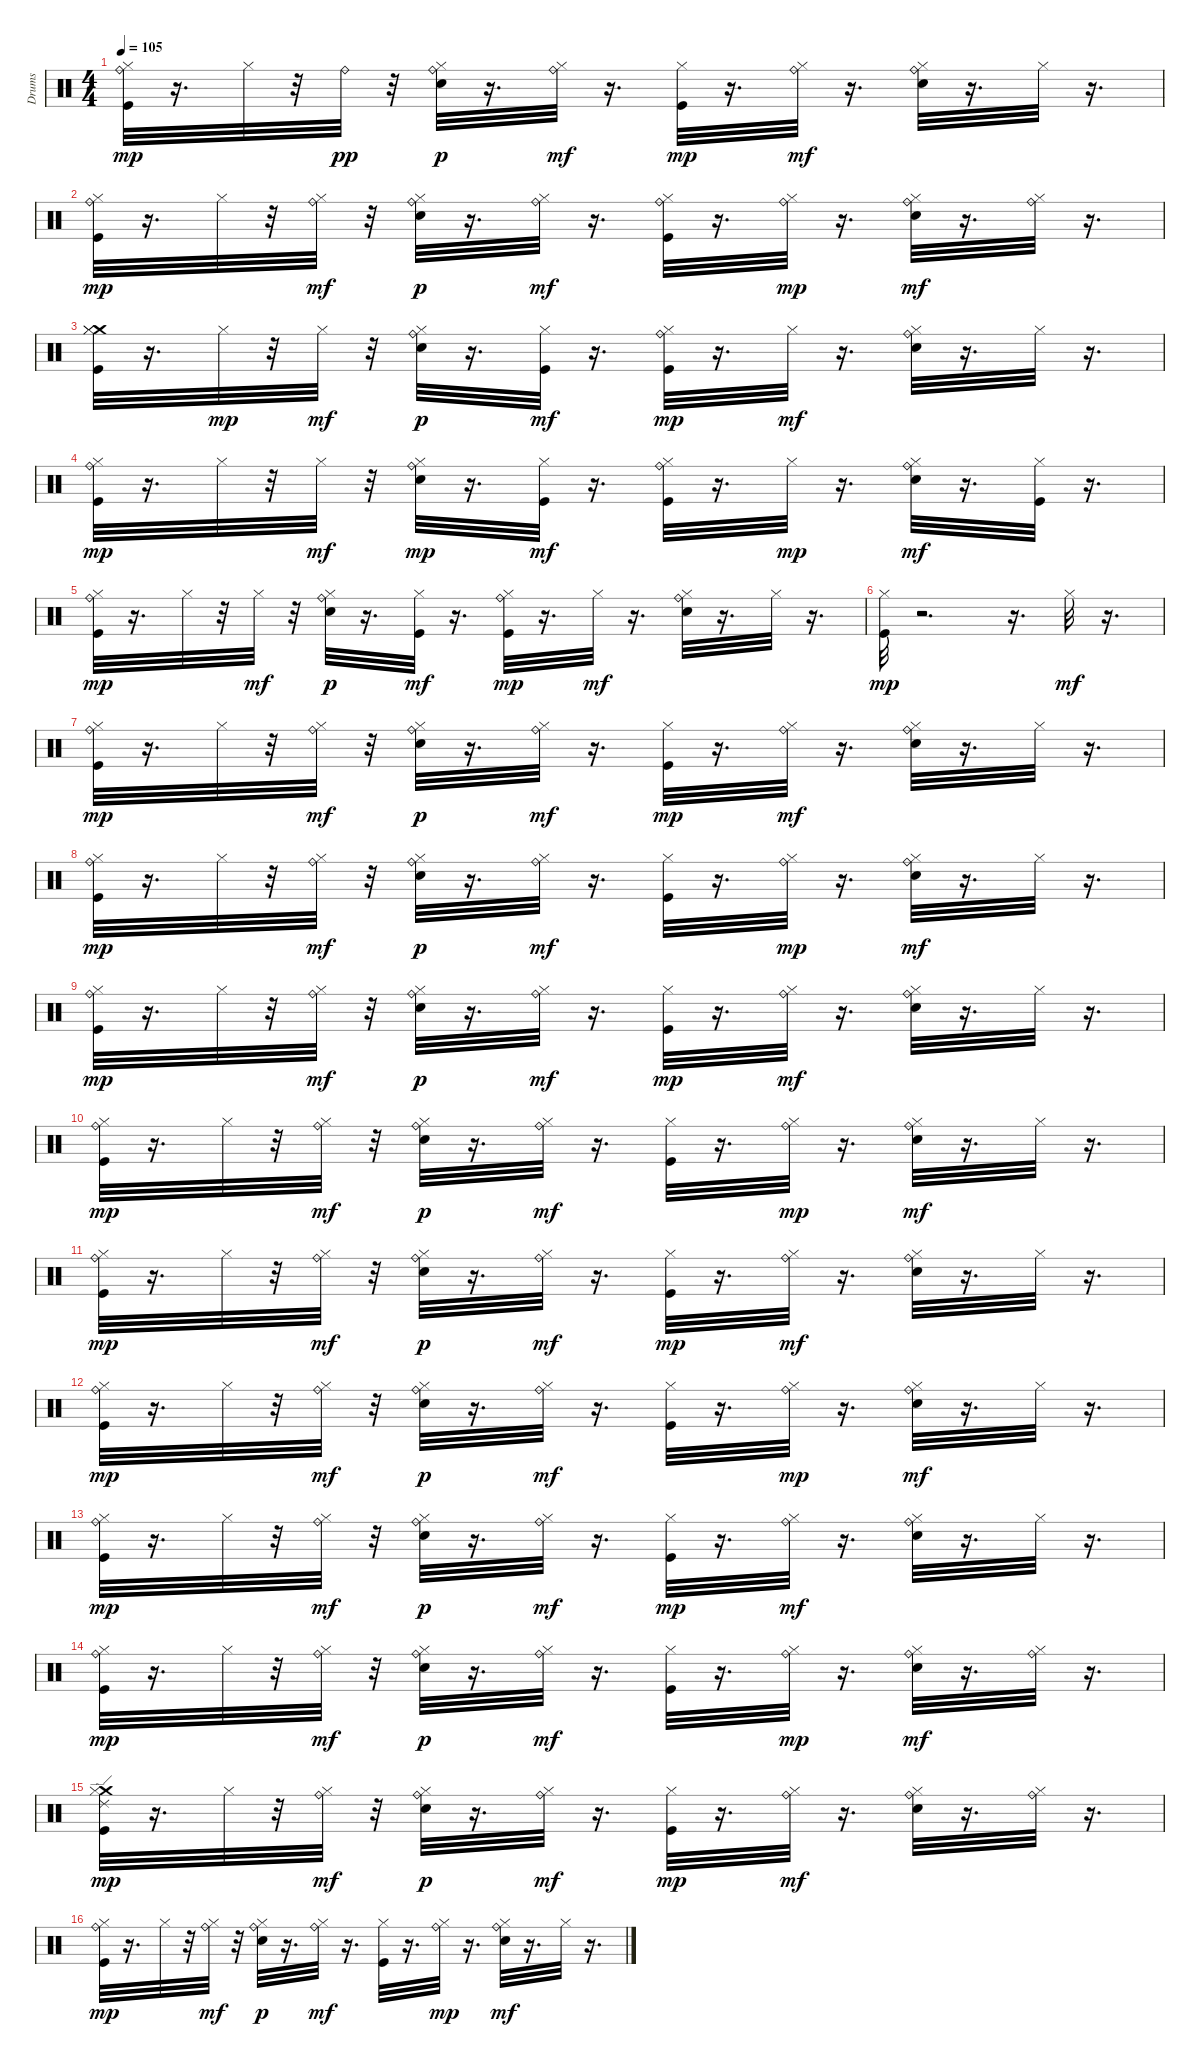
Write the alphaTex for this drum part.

\track ("Drums" "Drums") {instrument percussion}
\staff {score}
\articulation defaults
\ts (4 4)
\tempo 105
\clef neutral
\ks c
("Ride (bell)" "Kick (hit)" "Hi-Hat (closed)").32{dy mp} r.16{d} "Hi-Hat (closed)".32 r.32 "Ride (bell)".32{dy pp} r.32 ("Snare (hit) 2" "Ride (bell)" "Hi-Hat (closed)").32{dy p} r.16{d} ("Ride (bell)" "Hi-Hat (closed)").32{dy mf} r.16{d} ("Kick (hit)" "Hi-Hat (closed)").32{dy mp} r.16{d} ("Ride (bell)" "Hi-Hat (closed)").32{dy mf} r.16{d} ("Snare (hit) 2" "Ride (bell)" "Hi-Hat (closed)").32 r.16{d} "Hi-Hat (closed)".32 r.16{d} |
("Ride (bell)" "Kick (hit)" "Hi-Hat (closed)").32{dy mp} r.16{d} "Hi-Hat (closed)".32 r.32 ("Ride (bell)" "Hi-Hat (closed)").32{dy mf} r.32 ("Snare (hit) 2" "Ride (bell)" "Hi-Hat (closed)").32{dy p} r.16{d} ("Ride (bell)" "Hi-Hat (closed)").32{dy mf} r.16{d} ("Ride (bell)" "Kick (hit)" "Hi-Hat (closed)").32 r.16{d} ("Ride (bell)" "Hi-Hat (closed)").32{dy mp} r.16{d} ("Snare (hit) 2" "Ride (bell)" "Hi-Hat (closed)").32{dy mf} r.16{d} ("Ride (bell)" "Hi-Hat (closed)").32 r.16{d} |
("Crash medium (hit)" "Kick (hit)" "Hi-Hat (closed)" "Hi-Hat (closed)").32 r.16{d} "Hi-Hat (closed)".32{dy mp} r.32 "Hi-Hat (closed)".32{dy mf} r.32 ("Snare (hit) 2" "Ride (bell)" "Hi-Hat (closed)").32{dy p} r.16{d} ("Kick (hit)" "Hi-Hat (closed)").32{dy mf} r.16{d} ("Ride (bell)" "Kick (hit)" "Hi-Hat (closed)").32{dy mp} r.16{d} "Hi-Hat (closed)".32{dy mf} r.16{d} ("Snare (hit) 2" "Ride (bell)" "Hi-Hat (closed)").32 r.16{d} "Hi-Hat (closed)".32 r.16{d} |
("Ride (bell)" "Kick (hit)" "Hi-Hat (closed)").32{dy mp} r.16{d} "Hi-Hat (closed)".32 r.32 "Hi-Hat (closed)".32{dy mf} r.32 ("Snare (hit) 2" "Ride (bell)" "Hi-Hat (closed)").32{dy mp} r.16{d} ("Kick (hit)" "Hi-Hat (closed)").32{dy mf} r.16{d} ("Ride (bell)" "Kick (hit)" "Hi-Hat (closed)").32 r.16{d} "Hi-Hat (closed)".32{dy mp} r.16{d} ("Snare (hit) 2" "Ride (bell)" "Hi-Hat (closed)").32{dy mf} r.16{d} ("Kick (hit)" "Hi-Hat (closed)").32 r.16{d} |
("Ride (bell)" "Kick (hit)" "Hi-Hat (closed)").32{dy mp} r.16{d} "Hi-Hat (closed)".32 r.32 "Hi-Hat (closed)".32{dy mf} r.32 ("Snare (hit) 2" "Ride (bell)" "Hi-Hat (closed)").32{dy p} r.16{d} ("Kick (hit)" "Hi-Hat (closed)").32{dy mf} r.16{d} ("Ride (bell)" "Kick (hit)" "Hi-Hat (closed)").32{dy mp} r.16{d} "Hi-Hat (closed)".32{dy mf} r.16{d} ("Snare (hit) 2" "Ride (bell)" "Hi-Hat (closed)").32 r.16{d} "Hi-Hat (closed)".32 r.16{d} |
("Kick (hit)" "Hi-Hat (closed)").32{dy mp} r.2{d} r.16{d} "Hi-Hat (closed)".32{dy mf} r.16{d} |
("Ride (bell)" "Kick (hit)" "Hi-Hat (closed)").32{dy mp} r.16{d} "Hi-Hat (closed)".32 r.32 ("Ride (bell)" "Hi-Hat (closed)").32{dy mf} r.32 ("Snare (hit) 2" "Ride (bell)" "Hi-Hat (closed)").32{dy p} r.16{d} ("Ride (bell)" "Hi-Hat (closed)").32{dy mf} r.16{d} ("Kick (hit)" "Hi-Hat (closed)").32{dy mp} r.16{d} ("Ride (bell)" "Hi-Hat (closed)").32{dy mf} r.16{d} ("Snare (hit) 2" "Ride (bell)" "Hi-Hat (closed)").32 r.16{d} "Hi-Hat (closed)".32 r.16{d} |
("Ride (bell)" "Kick (hit)" "Hi-Hat (closed)").32{dy mp} r.16{d} "Hi-Hat (closed)".32 r.32 ("Ride (bell)" "Hi-Hat (closed)").32{dy mf} r.32 ("Snare (hit) 2" "Ride (bell)" "Hi-Hat (closed)").32{dy p} r.16{d} ("Ride (bell)" "Hi-Hat (closed)").32{dy mf} r.16{d} ("Kick (hit)" "Hi-Hat (closed)").32 r.16{d} ("Ride (bell)" "Hi-Hat (closed)").32{dy mp} r.16{d} ("Snare (hit) 2" "Ride (bell)" "Hi-Hat (closed)").32{dy mf} r.16{d} "Hi-Hat (closed)".32 r.16{d} |
("Ride (bell)" "Kick (hit)" "Hi-Hat (closed)").32{dy mp} r.16{d} "Hi-Hat (closed)".32 r.32 ("Ride (bell)" "Hi-Hat (closed)").32{dy mf} r.32 ("Snare (hit) 2" "Ride (bell)" "Hi-Hat (closed)").32{dy p} r.16{d} ("Ride (bell)" "Hi-Hat (closed)").32{dy mf} r.16{d} ("Kick (hit)" "Hi-Hat (closed)").32{dy mp} r.16{d} ("Ride (bell)" "Hi-Hat (closed)").32{dy mf} r.16{d} ("Snare (hit) 2" "Ride (bell)" "Hi-Hat (closed)").32 r.16{d} "Hi-Hat (closed)".32 r.16{d} |
("Ride (bell)" "Kick (hit)" "Hi-Hat (closed)").32{dy mp} r.16{d} "Hi-Hat (closed)".32 r.32 ("Ride (bell)" "Hi-Hat (closed)").32{dy mf} r.32 ("Snare (hit) 2" "Ride (bell)" "Hi-Hat (closed)").32{dy p} r.16{d} ("Ride (bell)" "Hi-Hat (closed)").32{dy mf} r.16{d} ("Kick (hit)" "Hi-Hat (closed)").32 r.16{d} ("Ride (bell)" "Hi-Hat (closed)").32{dy mp} r.16{d} ("Snare (hit) 2" "Ride (bell)" "Hi-Hat (closed)").32{dy mf} r.16{d} "Hi-Hat (closed)".32 r.16{d} |
("Ride (bell)" "Kick (hit)" "Hi-Hat (closed)").32{dy mp} r.16{d} "Hi-Hat (closed)".32 r.32 ("Ride (bell)" "Hi-Hat (closed)").32{dy mf} r.32 ("Snare (hit) 2" "Ride (bell)" "Hi-Hat (closed)").32{dy p} r.16{d} ("Ride (bell)" "Hi-Hat (closed)").32{dy mf} r.16{d} ("Kick (hit)" "Hi-Hat (closed)").32{dy mp} r.16{d} ("Ride (bell)" "Hi-Hat (closed)").32{dy mf} r.16{d} ("Snare (hit) 2" "Ride (bell)" "Hi-Hat (closed)").32 r.16{d} "Hi-Hat (closed)".32 r.16{d} |
("Ride (bell)" "Kick (hit)" "Hi-Hat (closed)").32{dy mp} r.16{d} "Hi-Hat (closed)".32 r.32 ("Ride (bell)" "Hi-Hat (closed)").32{dy mf} r.32 ("Snare (hit) 2" "Ride (bell)" "Hi-Hat (closed)").32{dy p} r.16{d} ("Ride (bell)" "Hi-Hat (closed)").32{dy mf} r.16{d} ("Kick (hit)" "Hi-Hat (closed)").32 r.16{d} ("Ride (bell)" "Hi-Hat (closed)").32{dy mp} r.16{d} ("Snare (hit) 2" "Ride (bell)" "Hi-Hat (closed)").32{dy mf} r.16{d} "Hi-Hat (closed)".32 r.16{d} |
("Ride (bell)" "Kick (hit)" "Hi-Hat (closed)").32{dy mp} r.16{d} "Hi-Hat (closed)".32 r.32 ("Ride (bell)" "Hi-Hat (closed)").32{dy mf} r.32 ("Snare (hit) 2" "Ride (bell)" "Hi-Hat (closed)").32{dy p} r.16{d} ("Ride (bell)" "Hi-Hat (closed)").32{dy mf} r.16{d} ("Kick (hit)" "Hi-Hat (closed)").32{dy mp} r.16{d} ("Ride (bell)" "Hi-Hat (closed)").32{dy mf} r.16{d} ("Snare (hit) 2" "Ride (bell)" "Hi-Hat (closed)").32 r.16{d} "Hi-Hat (closed)".32 r.16{d} |
("Ride (bell)" "Kick (hit)" "Hi-Hat (closed)").32{dy mp} r.16{d} "Hi-Hat (closed)".32 r.32 ("Ride (bell)" "Hi-Hat (closed)").32{dy mf} r.32 ("Snare (hit) 2" "Ride (bell)" "Hi-Hat (closed)").32{dy p} r.16{d} ("Ride (bell)" "Hi-Hat (closed)").32{dy mf} r.16{d} ("Kick (hit)" "Hi-Hat (closed)").32 r.16{d} ("Ride (bell)" "Hi-Hat (closed)").32{dy mp} r.16{d} ("Snare (hit) 2" "Ride (bell)" "Hi-Hat (closed)").32{dy mf} r.16{d} ("Ride (bell)" "Hi-Hat (closed)").32 r.16{d} |
("Ride (edge) 2" "Crash medium (hit)" "Kick (hit)" "Hi-Hat (closed)").32{dy mp} r.16{d} "Hi-Hat (closed)".32 r.32 ("Ride (bell)" "Hi-Hat (closed)").32{dy mf} r.32 ("Snare (hit) 2" "Ride (bell)" "Hi-Hat (closed)").32{dy p} r.16{d} ("Ride (bell)" "Hi-Hat (closed)").32{dy mf} r.16{d} ("Kick (hit)" "Hi-Hat (closed)").32{dy mp} r.16{d} ("Ride (bell)" "Hi-Hat (closed)").32{dy mf} r.16{d} ("Snare (hit) 2" "Ride (bell)" "Hi-Hat (closed)").32 r.16{d} ("Ride (bell)" "Hi-Hat (closed)").32 r.16{d} |
("Ride (bell)" "Kick (hit)" "Hi-Hat (closed)").32{dy mp} r.16{d} "Hi-Hat (closed)".32 r.32 ("Ride (bell)" "Hi-Hat (closed)").32{dy mf} r.32 ("Snare (hit) 2" "Ride (bell)" "Hi-Hat (closed)").32{dy p} r.16{d} ("Ride (bell)" "Hi-Hat (closed)").32{dy mf} r.16{d} ("Kick (hit)" "Hi-Hat (closed)").32 r.16{d} ("Ride (bell)" "Hi-Hat (closed)").32{dy mp} r.16{d} ("Snare (hit) 2" "Ride (bell)" "Hi-Hat (closed)").32{dy mf} r.16{d} "Hi-Hat (closed)".32 r.16{d}
